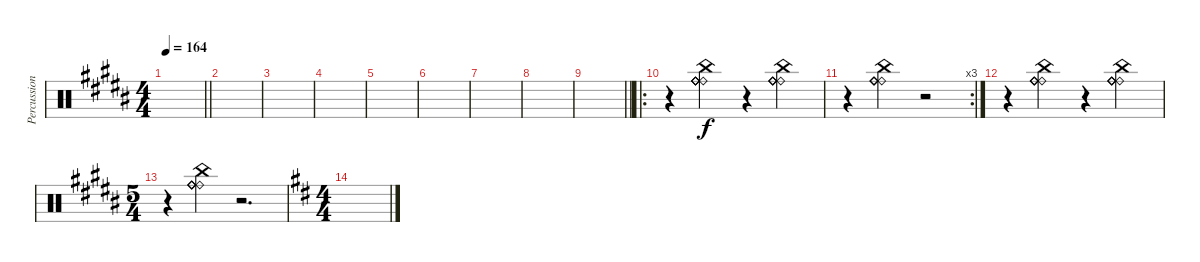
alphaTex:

\track ("Percussion" "Percussion") {instrument percussion}
\staff {score}
\articulation defaults
\ts (4 4)
\tempo 164
\clef neutral
\barLineRight lightlight
\ks g#minor
|
|
|
|
|
|
|
|
\barLineRight lightlight
|
\ro
r.4 ("China (hit)" "Ride (bell)" "Ride (bell)" "Ride (bell)" "Ride (bell)" "Ride (bell)").4 r.4 ("China (hit)" "Ride (bell)" "Ride (bell)" "Ride (bell)" "Ride (bell)" "Ride (bell)").4 |
\rc 3
r.4 ("China (hit)" "Ride (bell)" "Ride (bell)" "Ride (bell)" "Ride (bell)" "Ride (bell)").4 r.2 |
r.4 ("China (hit)" "Ride (bell)" "Ride (bell)" "Ride (bell)" "Ride (bell)" "Ride (bell)").4 r.4 ("China (hit)" "Ride (bell)" "Ride (bell)" "Ride (bell)" "Ride (bell)" "Ride (bell)").4 |
\ts (5 4)
r.4 ("China (hit)" "Ride (bell)" "Ride (bell)" "Ride (bell)" "Ride (bell)" "Ride (bell)").4 r.2{d} |
\ts (4 4)
\ks bminor
